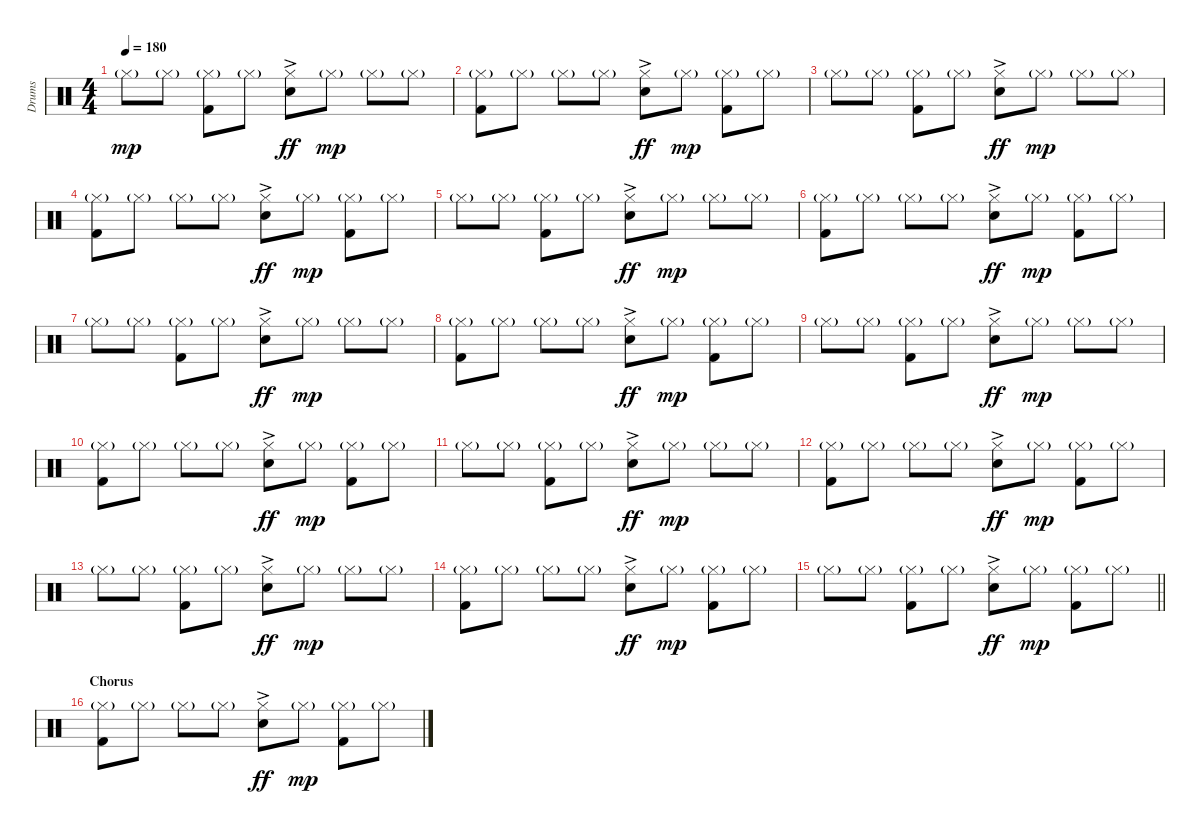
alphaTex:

\track ("Drums" "Drums") {instrument percussion}
\staff {score}
\articulation defaults
\ts (4 4)
\tempo 180
\clef neutral
\ks c "Hi-Hat (closed)"{g}.8{dy mp} "Hi-Hat (closed)"{g}.8
("Hi-Hat (closed)"{g} "Kick (hit) 2").8 "Hi-Hat (closed)"{g}.8 ("Hi-Hat (closed)"{ac} "Snare (hit) 2"{ac}).8{dy ff} "Hi-Hat (closed)"{g}.8{dy mp} "Hi-Hat (closed)"{g}.8 "Hi-Hat (closed)"{g}.8 |
("Hi-Hat (closed)"{g} "Kick (hit) 2").8 "Hi-Hat (closed)"{g}.8 "Hi-Hat (closed)"{g}.8 "Hi-Hat (closed)"{g}.8 ("Hi-Hat (closed)"{ac} "Snare (hit) 2"{ac}).8{dy ff} "Hi-Hat (closed)"{g}.8{dy mp} ("Hi-Hat (closed)"{g} "Kick (hit) 2").8 "Hi-Hat (closed)"{g}.8 |
"Hi-Hat (closed)"{g}.8 "Hi-Hat (closed)"{g}.8 ("Hi-Hat (closed)"{g} "Kick (hit) 2").8 "Hi-Hat (closed)"{g}.8 ("Hi-Hat (closed)"{ac} "Snare (hit) 2"{ac}).8{dy ff} "Hi-Hat (closed)"{g}.8{dy mp} "Hi-Hat (closed)"{g}.8 "Hi-Hat (closed)"{g}.8 |
("Hi-Hat (closed)"{g} "Kick (hit) 2").8 "Hi-Hat (closed)"{g}.8 "Hi-Hat (closed)"{g}.8 "Hi-Hat (closed)"{g}.8 ("Hi-Hat (closed)"{ac} "Snare (hit) 2"{ac}).8{dy ff} "Hi-Hat (closed)"{g}.8{dy mp} ("Hi-Hat (closed)"{g} "Kick (hit) 2").8 "Hi-Hat (closed)"{g}.8 |
"Hi-Hat (closed)"{g}.8 "Hi-Hat (closed)"{g}.8 ("Hi-Hat (closed)"{g} "Kick (hit) 2").8 "Hi-Hat (closed)"{g}.8 ("Hi-Hat (closed)"{ac} "Snare (hit) 2"{ac}).8{dy ff} "Hi-Hat (closed)"{g}.8{dy mp} "Hi-Hat (closed)"{g}.8 "Hi-Hat (closed)"{g}.8 |
("Hi-Hat (closed)"{g} "Kick (hit) 2").8 "Hi-Hat (closed)"{g}.8 "Hi-Hat (closed)"{g}.8 "Hi-Hat (closed)"{g}.8 ("Hi-Hat (closed)"{ac} "Snare (hit) 2"{ac}).8{dy ff} "Hi-Hat (closed)"{g}.8{dy mp} ("Hi-Hat (closed)"{g} "Kick (hit) 2").8 "Hi-Hat (closed)"{g}.8 |
"Hi-Hat (closed)"{g}.8 "Hi-Hat (closed)"{g}.8 ("Hi-Hat (closed)"{g} "Kick (hit) 2").8 "Hi-Hat (closed)"{g}.8 ("Hi-Hat (closed)"{ac} "Snare (hit) 2"{ac}).8{dy ff} "Hi-Hat (closed)"{g}.8{dy mp} "Hi-Hat (closed)"{g}.8 "Hi-Hat (closed)"{g}.8 |
("Hi-Hat (closed)"{g} "Kick (hit) 2").8 "Hi-Hat (closed)"{g}.8 "Hi-Hat (closed)"{g}.8 "Hi-Hat (closed)"{g}.8 ("Hi-Hat (closed)"{ac} "Snare (hit) 2"{ac}).8{dy ff} "Hi-Hat (closed)"{g}.8{dy mp} ("Hi-Hat (closed)"{g} "Kick (hit) 2").8 "Hi-Hat (closed)"{g}.8 |
"Hi-Hat (closed)"{g}.8 "Hi-Hat (closed)"{g}.8 ("Hi-Hat (closed)"{g} "Kick (hit) 2").8 "Hi-Hat (closed)"{g}.8 ("Hi-Hat (closed)"{ac} "Snare (hit) 2"{ac}).8{dy ff} "Hi-Hat (closed)"{g}.8{dy mp} "Hi-Hat (closed)"{g}.8 "Hi-Hat (closed)"{g}.8 |
("Hi-Hat (closed)"{g} "Kick (hit) 2").8 "Hi-Hat (closed)"{g}.8 "Hi-Hat (closed)"{g}.8 "Hi-Hat (closed)"{g}.8 ("Hi-Hat (closed)"{ac} "Snare (hit) 2"{ac}).8{dy ff} "Hi-Hat (closed)"{g}.8{dy mp} ("Hi-Hat (closed)"{g} "Kick (hit) 2").8 "Hi-Hat (closed)"{g}.8 |
"Hi-Hat (closed)"{g}.8 "Hi-Hat (closed)"{g}.8 ("Hi-Hat (closed)"{g} "Kick (hit) 2").8 "Hi-Hat (closed)"{g}.8 ("Hi-Hat (closed)"{ac} "Snare (hit) 2"{ac}).8{dy ff} "Hi-Hat (closed)"{g}.8{dy mp} "Hi-Hat (closed)"{g}.8 "Hi-Hat (closed)"{g}.8 |
("Hi-Hat (closed)"{g} "Kick (hit) 2").8 "Hi-Hat (closed)"{g}.8 "Hi-Hat (closed)"{g}.8 "Hi-Hat (closed)"{g}.8 ("Hi-Hat (closed)"{ac} "Snare (hit) 2"{ac}).8{dy ff} "Hi-Hat (closed)"{g}.8{dy mp} ("Hi-Hat (closed)"{g} "Kick (hit) 2").8 "Hi-Hat (closed)"{g}.8 |
"Hi-Hat (closed)"{g}.8 "Hi-Hat (closed)"{g}.8 ("Hi-Hat (closed)"{g} "Kick (hit) 2").8 "Hi-Hat (closed)"{g}.8 ("Hi-Hat (closed)"{ac} "Snare (hit) 2"{ac}).8{dy ff} "Hi-Hat (closed)"{g}.8{dy mp} "Hi-Hat (closed)"{g}.8 "Hi-Hat (closed)"{g}.8 |
("Hi-Hat (closed)"{g} "Kick (hit) 2").8 "Hi-Hat (closed)"{g}.8 "Hi-Hat (closed)"{g}.8 "Hi-Hat (closed)"{g}.8 ("Hi-Hat (closed)"{ac} "Snare (hit) 2"{ac}).8{dy ff} "Hi-Hat (closed)"{g}.8{dy mp} ("Hi-Hat (closed)"{g} "Kick (hit) 2").8 "Hi-Hat (closed)"{g}.8 |
\barLineRight lightlight "Hi-Hat (closed)"{g}.8 "Hi-Hat (closed)"{g}.8
("Hi-Hat (closed)"{g} "Kick (hit) 2").8 "Hi-Hat (closed)"{g}.8 ("Hi-Hat (closed)"{ac} "Snare (hit) 2"{ac}).8{dy ff} "Hi-Hat (closed)"{g}.8{dy mp} ("Hi-Hat (closed)"{g} "Kick (hit) 2").8 "Hi-Hat (closed)"{g}.8 |
\section ("" "Chorus")
("Hi-Hat (closed)"{g} "Kick (hit) 2").8 "Hi-Hat (closed)"{g}.8 "Hi-Hat (closed)"{g}.8 "Hi-Hat (closed)"{g}.8 ("Hi-Hat (closed)"{ac} "Snare (hit) 2"{ac}).8{dy ff} "Hi-Hat (closed)"{g}.8{dy mp} ("Hi-Hat (closed)"{g} "Kick (hit) 2").8 "Hi-Hat (closed)"{g}.8
